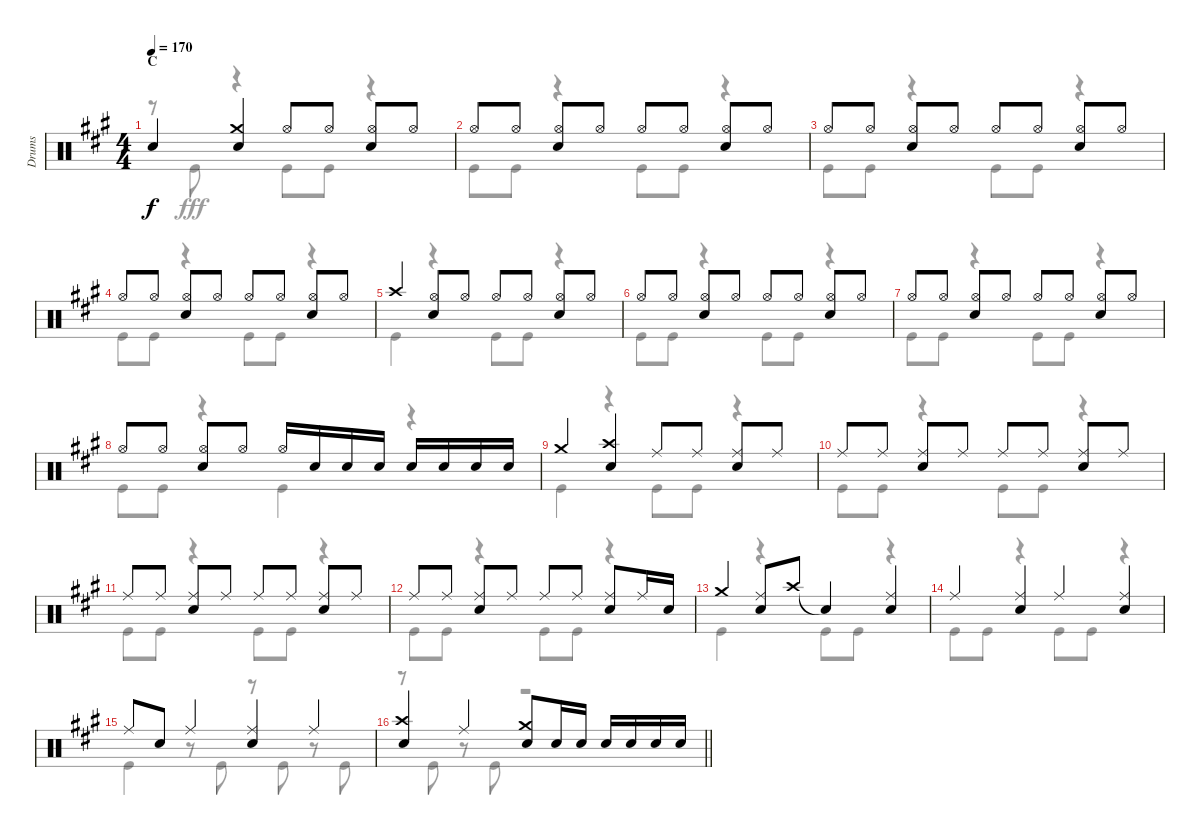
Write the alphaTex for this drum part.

\track ("Drums" "Drums") {instrument percussion}
\staff {score}
\articulation defaults
\voice
\ts (4 4)
\section ("" "C")
\tempo 170
\clef neutral
\ks a "Snare (hit)"{t}.4{dy f}
("Crash medium (hit)" "Snare (hit) 2").4 "Hi-Hat (open)".8 "Hi-Hat (open)".8 ("Hi-Hat (open)" "Snare (hit) 2").8 "Hi-Hat (open)".8 |
"Hi-Hat (open)".8 "Hi-Hat (open)".8 ("Hi-Hat (open)" "Snare (hit) 2").8 "Hi-Hat (open)".8 "Hi-Hat (open)".8 "Hi-Hat (open)".8 ("Hi-Hat (open)" "Snare (hit) 2").8 "Hi-Hat (open)".8 |
"Hi-Hat (open)".8 "Hi-Hat (open)".8 ("Hi-Hat (open)" "Snare (hit) 2").8 "Hi-Hat (open)".8 "Hi-Hat (open)".8 "Hi-Hat (open)".8 ("Hi-Hat (open)" "Snare (hit) 2").8 "Hi-Hat (open)".8 |
"Hi-Hat (open)".8 "Hi-Hat (open)".8 ("Hi-Hat (open)" "Snare (hit) 2").8 "Hi-Hat (open)".8 "Hi-Hat (open)".8 "Hi-Hat (open)".8 ("Hi-Hat (open)" "Snare (hit) 2").8 "Hi-Hat (open)".8 |
"Crash high (hit)".4 ("Hi-Hat (open)" "Snare (hit) 2").8 "Hi-Hat (open)".8 "Hi-Hat (open)".8 "Hi-Hat (open)".8 ("Hi-Hat (open)" "Snare (hit) 2").8 "Hi-Hat (open)".8 |
"Hi-Hat (open)".8 "Hi-Hat (open)".8 ("Hi-Hat (open)" "Snare (hit) 2").8 "Hi-Hat (open)".8 "Hi-Hat (open)".8 "Hi-Hat (open)".8 ("Hi-Hat (open)" "Snare (hit) 2").8 "Hi-Hat (open)".8 |
"Hi-Hat (open)".8 "Hi-Hat (open)".8 ("Hi-Hat (open)" "Snare (hit) 2").8 "Hi-Hat (open)".8 "Hi-Hat (open)".8 "Hi-Hat (open)".8 ("Hi-Hat (open)" "Snare (hit) 2").8 "Hi-Hat (open)".8 |
"Hi-Hat (open)".8 "Hi-Hat (open)".8 ("Hi-Hat (open)" "Snare (hit) 2").8 "Hi-Hat (open)".8 "Hi-Hat (open)".16 "Snare (hit) 2".16 "Snare (hit) 2".16 "Snare (hit) 2".16 "Snare (hit) 2".16 "Snare (hit) 2".16 "Snare (hit) 2".16 "Snare (hit) 2".16 |
"Crash medium (hit)".4 ("Crash high (hit)" "Snare (hit) 2").4 "Ride (middle)".8 "Ride (middle)".8 ("Ride (middle)" "Snare (hit) 2").8 "Ride (middle)".8 |
"Ride (middle)".8 "Ride (middle)".8 ("Ride (middle)" "Snare (hit) 2").8 "Ride (middle)".8 "Ride (middle)".8 "Ride (middle)".8 ("Ride (middle)" "Snare (hit) 2").8 "Ride (middle)".8 |
"Ride (middle)".8 "Ride (middle)".8 ("Ride (middle)" "Snare (hit) 2").8 "Ride (middle)".8 "Ride (middle)".8 "Ride (middle)".8 ("Ride (middle)" "Snare (hit) 2").8 "Ride (middle)".8 |
"Ride (middle)".8 "Ride (middle)".8 ("Ride (middle)" "Snare (hit) 2").8 "Ride (middle)".8 "Ride (middle)".8 "Ride (middle)".8 ("Ride (middle)" "Snare (hit) 2").8 "Ride (middle)".16 "Snare (hit) 2".16 |
"Crash medium (hit)".4 ("Ride (middle)" "Snare (hit) 2").8 "Crash high (hit)".8 "Snare (hit)"{t}.4 ("Ride (middle)" "Snare (hit) 2").4 |
"Ride (middle)".4 ("Ride (middle)" "Snare (hit) 2").4 "Ride (middle)".4 ("Ride (middle)" "Snare (hit) 2").4 |
"Ride (middle)".8 "Snare (hit) 2".8 "Ride (middle)".4 ("Ride (middle)" "Snare (hit) 2").4 "Ride (middle)".4 |
\barLineRight lightlight
("Crash high (hit)" "Snare (hit) 2").4 "Ride (middle)".4 ("Crash medium (hit)" "Snare (hit) 2").8 "Snare (hit) 2".16 "Snare (hit) 2".16 "Snare (hit) 2".16 "Snare (hit) 2".16 "Snare (hit) 2".16 "Snare (hit) 2".16
\voice
\clef neutral
\ottava regular
\simile none
\ks a
r.8{dy fff} "Kick (hit)".8 r.4 "Kick (hit)".8 "Kick (hit)".8 r.4 |
"Kick (hit)".8 "Kick (hit)".8 r.4 "Kick (hit)".8 "Kick (hit)".8 r.4 |
"Kick (hit)".8 "Kick (hit)".8 r.4 "Kick (hit)".8 "Kick (hit)".8 r.4 |
"Kick (hit)".8 "Kick (hit)".8 r.4 "Kick (hit)".8 "Kick (hit)".8 r.4 |
"Kick (hit)".4 r.4 "Kick (hit)".8 "Kick (hit)".8 r.4 |
"Kick (hit)".8 "Kick (hit)".8 r.4 "Kick (hit)".8 "Kick (hit)".8 r.4 |
"Kick (hit)".8 "Kick (hit)".8 r.4 "Kick (hit)".8 "Kick (hit)".8 r.4 |
"Kick (hit)".8 "Kick (hit)".8 r.4 "Kick (hit)".4 r.4 |
"Kick (hit)".4 r.4 "Kick (hit)".8 "Kick (hit)".8 r.4 |
"Kick (hit)".8 "Kick (hit)".8 r.4 "Kick (hit)".8 "Kick (hit)".8 r.4 |
"Kick (hit)".8 "Kick (hit)".8 r.4 "Kick (hit)".8 "Kick (hit)".8 r.4 |
"Kick (hit)".8 "Kick (hit)".8 r.4 "Kick (hit)".8 "Kick (hit)".8 r.4 |
"Kick (hit)".4 r.4 "Kick (hit)".8 "Kick (hit)".8 r.4 |
"Kick (hit)".8 "Kick (hit)".8 r.4 "Kick (hit)".8 "Kick (hit)".8 r.4 |
"Kick (hit)".4 r.8 "Kick (hit)".8 r.8 "Kick (hit)".8 r.8 "Kick (hit)".8 |
\barLineRight lightlight
r.8 "Kick (hit)".8 r.8 "Kick (hit)".8 r.2
